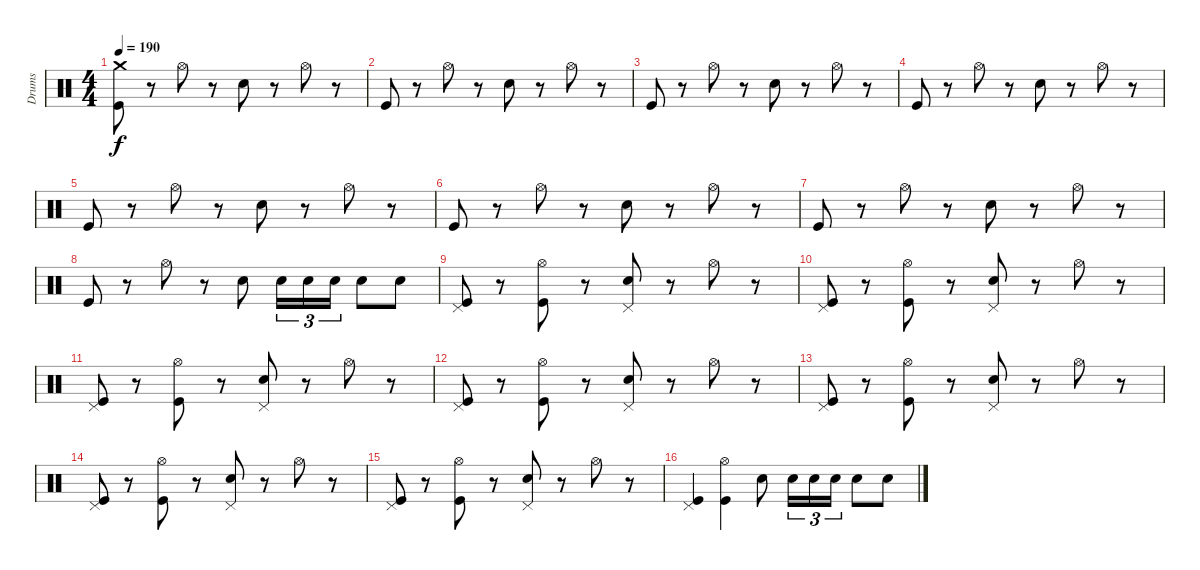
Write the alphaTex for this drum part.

\track ("Drums" "Drums") {instrument percussion}
\staff {score}
\articulation defaults
\ts (4 4)
\tempo 190
\clef neutral
\ks c
("Crash medium (hit)" "Kick (hit)").8{dy f} r.8 "Hi-Hat (open)".8 r.8 "Electric Snare (hit)".8 r.8 "Hi-Hat (open)".8 r.8 |
"Kick (hit)".8 r.8 "Hi-Hat (open)".8 r.8 "Electric Snare (hit)".8 r.8 "Hi-Hat (open)".8 r.8 |
"Kick (hit)".8 r.8 "Hi-Hat (open)".8 r.8 "Electric Snare (hit)".8 r.8 "Hi-Hat (open)".8 r.8 |
"Kick (hit)".8 r.8 "Hi-Hat (open)".8 r.8 "Electric Snare (hit)".8 r.8 "Hi-Hat (open)".8 r.8 |
"Kick (hit)".8 r.8 "Hi-Hat (open)".8 r.8 "Electric Snare (hit)".8 r.8 "Hi-Hat (open)".8 r.8 |
"Kick (hit)".8 r.8 "Hi-Hat (open)".8 r.8 "Electric Snare (hit)".8 r.8 "Hi-Hat (open)".8 r.8 |
"Kick (hit)".8 r.8 "Hi-Hat (open)".8 r.8 "Electric Snare (hit)".8 r.8 "Hi-Hat (open)".8 r.8 |
"Kick (hit)".8 r.8 "Hi-Hat (open)".8 r.8 "Electric Snare (hit)".8 "Electric Snare (hit)".16{tu (3 2)} "Electric Snare (hit)".16{tu (3 2)} "Electric Snare (hit)".16{tu (3 2)} "Electric Snare (hit)".8 "Electric Snare (hit)".8 |
("Kick (hit)" "Pedal Hi-Hat (hit)").8 r.8 ("Kick (hit)" "Hi-Hat (open)").8 r.8 ("Electric Snare (hit)" "Pedal Hi-Hat (hit)").8 r.8 "Hi-Hat (open)".8 r.8 |
("Kick (hit)" "Pedal Hi-Hat (hit)").8 r.8 ("Kick (hit)" "Hi-Hat (open)").8 r.8 ("Electric Snare (hit)" "Pedal Hi-Hat (hit)").8 r.8 "Hi-Hat (open)".8 r.8 |
("Kick (hit)" "Pedal Hi-Hat (hit)").8 r.8 ("Kick (hit)" "Hi-Hat (open)").8 r.8 ("Electric Snare (hit)" "Pedal Hi-Hat (hit)").8 r.8 "Hi-Hat (open)".8 r.8 |
("Kick (hit)" "Pedal Hi-Hat (hit)").8 r.8 ("Kick (hit)" "Hi-Hat (open)").8 r.8 ("Electric Snare (hit)" "Pedal Hi-Hat (hit)").8 r.8 "Hi-Hat (open)".8 r.8 |
("Kick (hit)" "Pedal Hi-Hat (hit)").8 r.8 ("Kick (hit)" "Hi-Hat (open)").8 r.8 ("Electric Snare (hit)" "Pedal Hi-Hat (hit)").8 r.8 "Hi-Hat (open)".8 r.8 |
("Kick (hit)" "Pedal Hi-Hat (hit)").8 r.8 ("Kick (hit)" "Hi-Hat (open)").8 r.8 ("Electric Snare (hit)" "Pedal Hi-Hat (hit)").8 r.8 "Hi-Hat (open)".8 r.8 |
("Kick (hit)" "Pedal Hi-Hat (hit)").8 r.8 ("Kick (hit)" "Hi-Hat (open)").8 r.8 ("Electric Snare (hit)" "Pedal Hi-Hat (hit)").8 r.8 "Hi-Hat (open)".8 r.8 |
("Kick (hit)" "Pedal Hi-Hat (hit)").4 ("Kick (hit)" "Hi-Hat (open)").4 "Electric Snare (hit)".8 "Electric Snare (hit)".16{tu (3 2)} "Electric Snare (hit)".16{tu (3 2)} "Electric Snare (hit)".16{tu (3 2)} "Electric Snare (hit)".8 "Electric Snare (hit)".8
